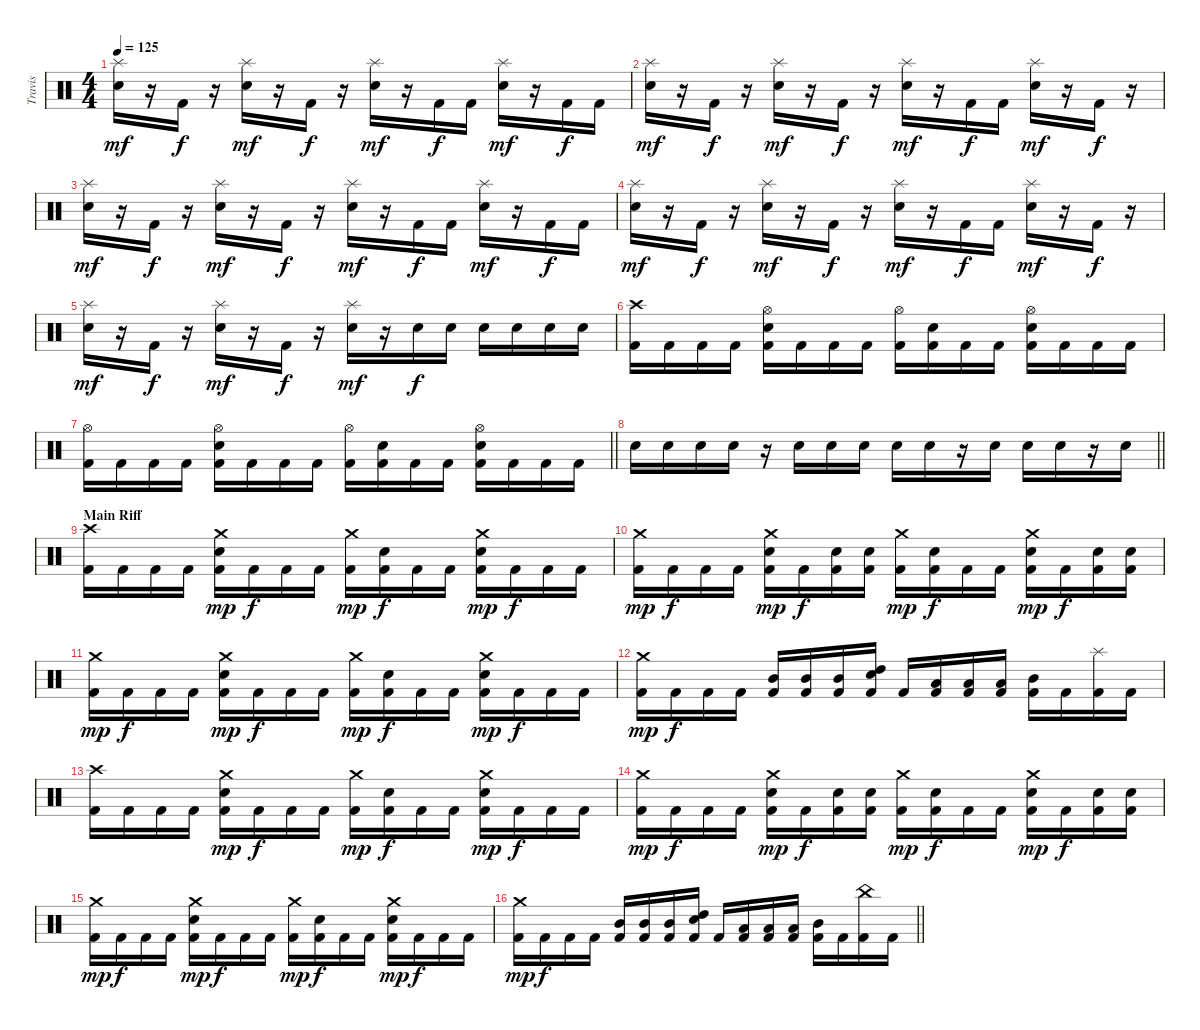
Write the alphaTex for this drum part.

\track ("Travis" "Travis") {instrument percussion}
\staff {score}
\articulation defaults
\ts (4 4)
\tempo 125
\clef neutral
\ks c
("Splash (hit)" "Electric Snare (hit)").16{dy mf} r.16 "Kick (hit) 2".16{dy f} r.16 ("Splash (hit)" "Electric Snare (hit)").16{dy mf} r.16 "Kick (hit) 2".16{dy f} r.16 ("Splash (hit)" "Electric Snare (hit)").16{dy mf} r.16 "Kick (hit) 2".16{dy f} "Kick (hit) 2".16 ("Splash (hit)" "Electric Snare (hit)").16{dy mf} r.16 "Kick (hit) 2".16{dy f} "Kick (hit) 2".16 |
("Splash (hit)" "Electric Snare (hit)").16{dy mf} r.16 "Kick (hit) 2".16{dy f} r.16 ("Splash (hit)" "Electric Snare (hit)").16{dy mf} r.16 "Kick (hit) 2".16{dy f} r.16 ("Splash (hit)" "Electric Snare (hit)").16{dy mf} r.16 "Kick (hit) 2".16{dy f} "Kick (hit) 2".16 ("Splash (hit)" "Electric Snare (hit)").16{dy mf} r.16 "Kick (hit) 2".16{dy f} r.16 |
("Splash (hit)" "Electric Snare (hit)").16{dy mf} r.16 "Kick (hit) 2".16{dy f} r.16 ("Splash (hit)" "Electric Snare (hit)").16{dy mf} r.16 "Kick (hit) 2".16{dy f} r.16 ("Splash (hit)" "Electric Snare (hit)").16{dy mf} r.16 "Kick (hit) 2".16{dy f} "Kick (hit) 2".16 ("Splash (hit)" "Electric Snare (hit)").16{dy mf} r.16 "Kick (hit) 2".16{dy f} "Kick (hit) 2".16 |
("Splash (hit)" "Electric Snare (hit)").16{dy mf} r.16 "Kick (hit) 2".16{dy f} r.16 ("Splash (hit)" "Electric Snare (hit)").16{dy mf} r.16 "Kick (hit) 2".16{dy f} r.16 ("Splash (hit)" "Electric Snare (hit)").16{dy mf} r.16 "Kick (hit) 2".16{dy f} "Kick (hit) 2".16 ("Splash (hit)" "Electric Snare (hit)").16{dy mf} r.16 "Kick (hit) 2".16{dy f} r.16 |
("Splash (hit)" "Electric Snare (hit)").16{dy mf} r.16 "Kick (hit) 2".16{dy f} r.16 ("Splash (hit)" "Electric Snare (hit)").16{dy mf} r.16 "Kick (hit) 2".16{dy f} r.16 ("Splash (hit)" "Electric Snare (hit)").16{dy mf} r.16 "Electric Snare (hit)".16{dy f} "Electric Snare (hit)".16 "Electric Snare (hit)".16 "Electric Snare (hit)".16 "Electric Snare (hit)".16 "Electric Snare (hit)".16 |
("Crash high (hit)" "Kick (hit) 2").16 "Kick (hit) 2".16 "Kick (hit) 2".16 "Kick (hit) 2".16 ("Hi-Hat (open)" "Electric Snare (hit)" "Kick (hit) 2").16 "Kick (hit) 2".16 "Kick (hit) 2".16 "Kick (hit) 2".16 ("Hi-Hat (open)" "Kick (hit) 2").16 ("Electric Snare (hit)" "Kick (hit) 2").16 "Kick (hit) 2".16 "Kick (hit) 2".16 ("Hi-Hat (open)" "Electric Snare (hit)" "Kick (hit) 2").16 "Kick (hit) 2".16 "Kick (hit) 2".16 "Kick (hit) 2".16 |
\barLineRight lightlight
("Hi-Hat (open)" "Kick (hit) 2").16 "Kick (hit) 2".16 "Kick (hit) 2".16 "Kick (hit) 2".16 ("Hi-Hat (open)" "Electric Snare (hit)" "Kick (hit) 2").16 "Kick (hit) 2".16 "Kick (hit) 2".16 "Kick (hit) 2".16 ("Hi-Hat (open)" "Kick (hit) 2").16 ("Electric Snare (hit)" "Kick (hit) 2").16 "Kick (hit) 2".16 "Kick (hit) 2".16 ("Hi-Hat (open)" "Electric Snare (hit)" "Kick (hit) 2").16 "Kick (hit) 2".16 "Kick (hit) 2".16 "Kick (hit) 2".16 |
\section ("" "")
\barLineRight lightlight "Electric Snare (hit)".16 "Electric Snare (hit)".16 "Electric Snare (hit)".16 "Electric Snare (hit)".16
r.16 "Electric Snare (hit)".16 "Electric Snare (hit)".16 "Electric Snare (hit)".16 "Electric Snare (hit)".16 "Electric Snare (hit)".16 r.16 "Electric Snare (hit)".16 "Electric Snare (hit)".16 "Electric Snare (hit)".16 r.16 "Electric Snare (hit)".16 |
\section ("" "Main Riff")
("Crash high (hit)" "Kick (hit) 2").16 "Kick (hit) 2".16 "Kick (hit) 2".16 "Kick (hit) 2".16 ("Crash medium (hit)" "Electric Snare (hit)" "Kick (hit) 2").16{dy mp} "Kick (hit) 2".16{dy f} "Kick (hit) 2".16 "Kick (hit) 2".16 ("Crash medium (hit)" "Kick (hit) 2").16{dy mp} ("Electric Snare (hit)" "Kick (hit) 2").16{dy f} "Kick (hit) 2".16 "Kick (hit) 2".16 ("Crash medium (hit)" "Electric Snare (hit)" "Kick (hit) 2").16{dy mp} "Kick (hit) 2".16{dy f} "Kick (hit) 2".16 "Kick (hit) 2".16 |
("Crash medium (hit)" "Kick (hit) 2").16{dy mp} "Kick (hit) 2".16{dy f} "Kick (hit) 2".16 "Kick (hit) 2".16 ("Crash medium (hit)" "Electric Snare (hit)" "Kick (hit) 2").16{dy mp} "Kick (hit) 2".16{dy f} ("Electric Snare (hit)" "Kick (hit) 2").16 ("Electric Snare (hit)" "Kick (hit) 2").16 ("Crash medium (hit)" "Kick (hit) 2").16{dy mp} ("Electric Snare (hit)" "Kick (hit) 2").16{dy f} "Kick (hit) 2".16 "Kick (hit) 2".16 ("Crash medium (hit)" "Electric Snare (hit)" "Kick (hit) 2").16{dy mp} "Kick (hit) 2".16{dy f} ("Electric Snare (hit)" "Kick (hit) 2").16 ("Electric Snare (hit)" "Kick (hit) 2").16 |
("Crash medium (hit)" "Kick (hit) 2").16{dy mp} "Kick (hit) 2".16{dy f} "Kick (hit) 2".16 "Kick (hit) 2".16 ("Crash medium (hit)" "Electric Snare (hit)" "Kick (hit) 2").16{dy mp} "Kick (hit) 2".16{dy f} "Kick (hit) 2".16 "Kick (hit) 2".16 ("Crash medium (hit)" "Kick (hit) 2").16{dy mp} ("Electric Snare (hit)" "Kick (hit) 2").16{dy f} "Kick (hit) 2".16 "Kick (hit) 2".16 ("Crash medium (hit)" "Electric Snare (hit)" "Kick (hit) 2").16{dy mp} "Kick (hit) 2".16{dy f} "Kick (hit) 2".16 "Kick (hit) 2".16 |
("Crash medium (hit)" "Kick (hit) 2").16{dy mp} "Kick (hit) 2".16{dy f} "Kick (hit) 2".16 "Kick (hit) 2".16 ("Mid Tom (hit)" "Kick (hit) 2").16 ("Mid Tom (hit)" "Kick (hit) 2").16 ("Mid Tom (hit)" "Kick (hit) 2").16 ("Electric Snare (hit)" "High Tom (hit)" "Kick (hit) 2").16 "Kick (hit) 2".16 ("Low Tom (hit)" "Kick (hit) 2").16 ("Low Tom (hit)" "Kick (hit) 2").16 ("Low Tom (hit)" "Kick (hit) 2").16 ("Mid Tom (hit)" "Kick (hit) 2").16 "Kick (hit) 2".16 ("Splash (hit)" "Kick (hit) 2").16 "Kick (hit) 2".16 |
("Crash high (hit)" "Kick (hit) 2").16 "Kick (hit) 2".16 "Kick (hit) 2".16 "Kick (hit) 2".16 ("Crash medium (hit)" "Electric Snare (hit)" "Kick (hit) 2").16{dy mp} "Kick (hit) 2".16{dy f} "Kick (hit) 2".16 "Kick (hit) 2".16 ("Crash medium (hit)" "Kick (hit) 2").16{dy mp} ("Electric Snare (hit)" "Kick (hit) 2").16{dy f} "Kick (hit) 2".16 "Kick (hit) 2".16 ("Crash medium (hit)" "Electric Snare (hit)" "Kick (hit) 2").16{dy mp} "Kick (hit) 2".16{dy f} "Kick (hit) 2".16 "Kick (hit) 2".16 |
("Crash medium (hit)" "Kick (hit) 2").16{dy mp} "Kick (hit) 2".16{dy f} "Kick (hit) 2".16 "Kick (hit) 2".16 ("Crash medium (hit)" "Electric Snare (hit)" "Kick (hit) 2").16{dy mp} "Kick (hit) 2".16{dy f} ("Electric Snare (hit)" "Kick (hit) 2").16 ("Electric Snare (hit)" "Kick (hit) 2").16 ("Crash medium (hit)" "Kick (hit) 2").16{dy mp} ("Electric Snare (hit)" "Kick (hit) 2").16{dy f} "Kick (hit) 2".16 "Kick (hit) 2".16 ("Crash medium (hit)" "Electric Snare (hit)" "Kick (hit) 2").16{dy mp} "Kick (hit) 2".16{dy f} ("Electric Snare (hit)" "Kick (hit) 2").16 ("Electric Snare (hit)" "Kick (hit) 2").16 |
("Crash medium (hit)" "Kick (hit) 2").16{dy mp} "Kick (hit) 2".16{dy f} "Kick (hit) 2".16 "Kick (hit) 2".16 ("Crash medium (hit)" "Electric Snare (hit)" "Kick (hit) 2").16{dy mp} "Kick (hit) 2".16{dy f} "Kick (hit) 2".16 "Kick (hit) 2".16 ("Crash medium (hit)" "Kick (hit) 2").16{dy mp} ("Electric Snare (hit)" "Kick (hit) 2").16{dy f} "Kick (hit) 2".16 "Kick (hit) 2".16 ("Crash medium (hit)" "Electric Snare (hit)" "Kick (hit) 2").16{dy mp} "Kick (hit) 2".16{dy f} "Kick (hit) 2".16 "Kick (hit) 2".16 |
\barLineRight lightlight
("Crash medium (hit)" "Kick (hit) 2").16{dy mp} "Kick (hit) 2".16{dy f} "Kick (hit) 2".16 "Kick (hit) 2".16 ("Mid Tom (hit)" "Kick (hit) 2").16 ("Mid Tom (hit)" "Kick (hit) 2").16 ("Mid Tom (hit)" "Kick (hit) 2").16 ("Electric Snare (hit)" "High Tom (hit)" "Kick (hit) 2").16 "Kick (hit) 2".16 ("Low Tom (hit)" "Kick (hit) 2").16 ("Low Tom (hit)" "Kick (hit) 2").16 ("Low Tom (hit)" "Kick (hit) 2").16 ("Mid Tom (hit)" "Kick (hit) 2").16 "Kick (hit) 2".16 ("China (hit)" "Kick (hit) 2").16 "Kick (hit) 2".16
